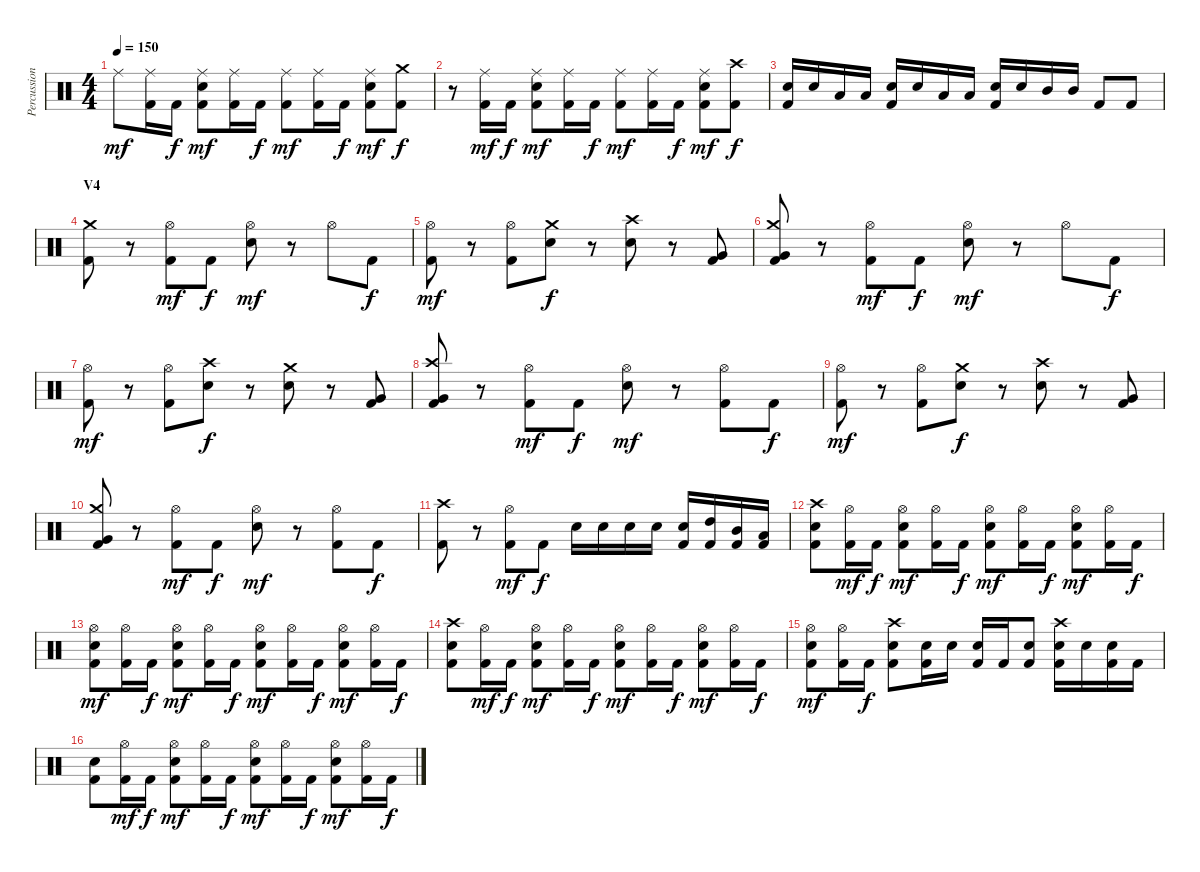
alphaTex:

\track ("Percussion" "Percussion") {instrument percussion}
\staff {score}
\articulation defaults
\ts (4 4)
\tempo 150
\clef neutral
\ks c "Ride (middle)".8{dy mf}
("Ride (middle)" "Kick (hit) 2").16 "Kick (hit) 2".16{dy f} ("Ride (middle)" "Electric Snare (hit)" "Kick (hit) 2").8{dy mf} ("Ride (middle)" "Kick (hit) 2").16 "Kick (hit) 2".16{dy f} ("Ride (middle)" "Kick (hit) 2").8{dy mf} ("Ride (middle)" "Kick (hit) 2").16 "Kick (hit) 2".16{dy f} ("Ride (middle)" "Electric Snare (hit)" "Kick (hit) 2").8{dy mf} ("Crash medium (hit)" "Kick (hit) 2").8{dy f} |
r.8 ("Ride (middle)" "Kick (hit) 2").16{dy mf} "Kick (hit) 2".16{dy f} ("Ride (middle)" "Electric Snare (hit)" "Kick (hit) 2").8{dy mf} ("Ride (middle)" "Kick (hit) 2").16 "Kick (hit) 2".16{dy f} ("Ride (middle)" "Kick (hit) 2").8{dy mf} ("Ride (middle)" "Kick (hit) 2").16 "Kick (hit) 2".16{dy f} ("Ride (middle)" "Electric Snare (hit)" "Kick (hit) 2").8{dy mf} ("Crash high (hit)" "Kick (hit) 2").8{dy f} |
("Electric Snare (hit)" "Kick (hit) 2").16 "Electric Snare (hit)".16 "Low Tom (hit)".16 "Low Tom (hit)".16 ("Electric Snare (hit)" "Kick (hit) 2").16 "Electric Snare (hit)".16 "Low Tom (hit)".16 "Low Tom (hit)".16 ("Electric Snare (hit)" "Kick (hit) 2").16 "Electric Snare (hit)".16 "Mid Tom (hit)".16 "Mid Tom (hit)".16 "Kick (hit) 2".8 "Kick (hit) 2".8 |
\section ("" "V4")
("Crash medium (hit)" "Kick (hit) 2").8 r.8 ("Hi-Hat (open)" "Kick (hit) 2").8{dy mf} "Kick (hit) 2".8{dy f} ("Hi-Hat (open)" "Electric Snare (hit)").8{dy mf} r.8 "Hi-Hat (open)".8 "Kick (hit) 2".8{dy f} |
("Hi-Hat (open)" "Kick (hit) 2").8{dy mf} r.8 ("Hi-Hat (open)" "Kick (hit) 2").8 ("Crash medium (hit)" "Electric Snare (hit)").8{dy f} r.8 ("Crash high (hit)" "Electric Snare (hit)").8 r.8 ("Very Low Tom (hit)" "Kick (hit) 2").8 |
("Crash medium (hit)" "Very Low Tom (hit)" "Kick (hit) 2").8 r.8 ("Hi-Hat (open)" "Kick (hit) 2").8{dy mf} "Kick (hit) 2".8{dy f} ("Hi-Hat (open)" "Electric Snare (hit)").8{dy mf} r.8 "Hi-Hat (open)".8 "Kick (hit) 2".8{dy f} |
("Hi-Hat (open)" "Kick (hit) 2").8{dy mf} r.8 ("Hi-Hat (open)" "Kick (hit) 2").8 ("Crash high (hit)" "Electric Snare (hit)").8{dy f} r.8 ("Crash medium (hit)" "Electric Snare (hit)").8 r.8 ("Very Low Tom (hit)" "Kick (hit) 2").8 |
("Crash high (hit)" "Very Low Tom (hit)" "Kick (hit) 2").8 r.8 ("Hi-Hat (open)" "Kick (hit) 2").8{dy mf} "Kick (hit) 2".8{dy f} ("Hi-Hat (open)" "Electric Snare (hit)").8{dy mf} r.8 ("Hi-Hat (open)" "Kick (hit) 2").8 "Kick (hit) 2".8{dy f} |
("Hi-Hat (open)" "Kick (hit) 2").8{dy mf} r.8 ("Hi-Hat (open)" "Kick (hit) 2").8 ("Crash medium (hit)" "Electric Snare (hit)").8{dy f} r.8 ("Crash high (hit)" "Electric Snare (hit)").8 r.8 ("Very Low Tom (hit)" "Kick (hit) 2").8 |
("Crash medium (hit)" "Very Low Tom (hit)" "Kick (hit) 2").8 r.8 ("Hi-Hat (open)" "Kick (hit) 2").8{dy mf} "Kick (hit) 2".8{dy f} ("Hi-Hat (open)" "Electric Snare (hit)").8{dy mf} r.8 ("Hi-Hat (open)" "Kick (hit) 2").8 "Kick (hit) 2".8{dy f} |
("Crash high (hit)" "Kick (hit) 2").8 r.8 ("Hi-Hat (open)" "Kick (hit) 2").8{dy mf} "Kick (hit) 2".8{dy f} "Electric Snare (hit)".16 "Electric Snare (hit)".16 "Electric Snare (hit)".16 "Electric Snare (hit)".16 ("Electric Snare (hit)" "Kick (hit) 2").16 ("High Tom (hit)" "Kick (hit) 2").16 ("Mid Tom (hit)" "Kick (hit) 2").16 ("Low Tom (hit)" "Kick (hit) 2").16 |
\section ("" "")
("Crash high (hit)" "Electric Snare (hit)" "Kick (hit) 2").8 ("Hi-Hat (open)" "Kick (hit) 2").16{dy mf} "Kick (hit) 2".16{dy f} ("Hi-Hat (open)" "Electric Snare (hit)" "Kick (hit) 2").8{dy mf} ("Hi-Hat (open)" "Kick (hit) 2").16 "Kick (hit) 2".16{dy f} ("Hi-Hat (open)" "Electric Snare (hit)" "Kick (hit) 2").8{dy mf} ("Hi-Hat (open)" "Kick (hit) 2").16 "Kick (hit) 2".16{dy f} ("Hi-Hat (open)" "Electric Snare (hit)" "Kick (hit) 2").8{dy mf} ("Hi-Hat (open)" "Kick (hit) 2").16 "Kick (hit) 2".16{dy f} |
("Hi-Hat (open)" "Electric Snare (hit)" "Kick (hit) 2").8{dy mf} ("Hi-Hat (open)" "Kick (hit) 2").16 "Kick (hit) 2".16{dy f} ("Hi-Hat (open)" "Electric Snare (hit)" "Kick (hit) 2").8{dy mf} ("Hi-Hat (open)" "Kick (hit) 2").16 "Kick (hit) 2".16{dy f} ("Hi-Hat (open)" "Electric Snare (hit)" "Kick (hit) 2").8{dy mf} ("Hi-Hat (open)" "Kick (hit) 2").16 "Kick (hit) 2".16{dy f} ("Hi-Hat (open)" "Electric Snare (hit)" "Kick (hit) 2").8{dy mf} ("Hi-Hat (open)" "Kick (hit) 2").16 "Kick (hit) 2".16{dy f} |
("Crash high (hit)" "Electric Snare (hit)" "Kick (hit) 2").8 ("Hi-Hat (open)" "Kick (hit) 2").16{dy mf} "Kick (hit) 2".16{dy f} ("Hi-Hat (open)" "Electric Snare (hit)" "Kick (hit) 2").8{dy mf} ("Hi-Hat (open)" "Kick (hit) 2").16 "Kick (hit) 2".16{dy f} ("Hi-Hat (open)" "Electric Snare (hit)" "Kick (hit) 2").8{dy mf} ("Hi-Hat (open)" "Kick (hit) 2").16 "Kick (hit) 2".16{dy f} ("Hi-Hat (open)" "Electric Snare (hit)" "Kick (hit) 2").8{dy mf} ("Hi-Hat (open)" "Kick (hit) 2").16 "Kick (hit) 2".16{dy f} |
("Hi-Hat (open)" "Electric Snare (hit)" "Kick (hit) 2").8{dy mf} ("Hi-Hat (open)" "Kick (hit) 2").16 "Kick (hit) 2".16{dy f} ("Crash high (hit)" "Electric Snare (hit)" "Kick (hit) 2").8 ("Electric Snare (hit)" "Kick (hit) 2").16 "Electric Snare (hit)".16 ("Electric Snare (hit)" "Kick (hit) 2").16 "Kick (hit) 2".16 ("Electric Snare (hit)" "Kick (hit) 2").8 ("Crash high (hit)" "Electric Snare (hit)" "Kick (hit) 2").16 "Electric Snare (hit)".16 ("Electric Snare (hit)" "Kick (hit) 2").16 "Kick (hit) 2".16 |
("Electric Snare (hit)" "Kick (hit) 2").8 ("Hi-Hat (open)" "Kick (hit) 2").16{dy mf} "Kick (hit) 2".16{dy f} ("Hi-Hat (open)" "Electric Snare (hit)" "Kick (hit) 2").8{dy mf} ("Hi-Hat (open)" "Kick (hit) 2").16 "Kick (hit) 2".16{dy f} ("Hi-Hat (open)" "Electric Snare (hit)" "Kick (hit) 2").8{dy mf} ("Hi-Hat (open)" "Kick (hit) 2").16 "Kick (hit) 2".16{dy f} ("Hi-Hat (open)" "Electric Snare (hit)" "Kick (hit) 2").8{dy mf} ("Hi-Hat (open)" "Kick (hit) 2").16 "Kick (hit) 2".16{dy f}
